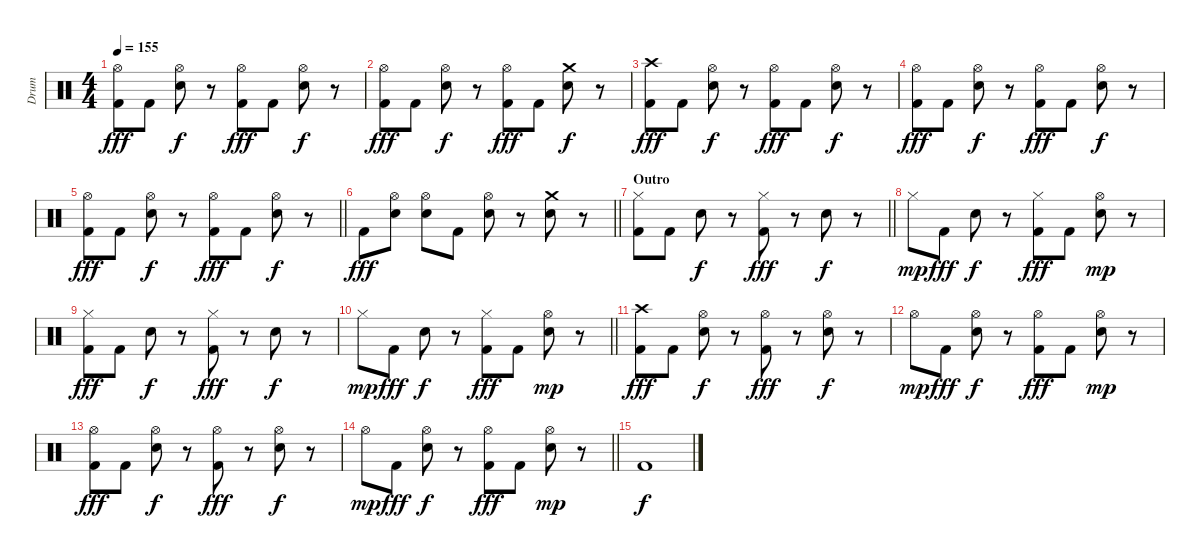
\track ("Drum" "Drum") {instrument percussion}
\staff {score}
\articulation defaults
\ts (4 4)
\tempo 155
\clef neutral
\ks c
("Hi-Hat (open)" "Kick (hit) 2").8{dy fff} "Kick (hit) 2".8 ("Hi-Hat (open)" "Snare (hit) 2").8{dy f} r.8 ("Hi-Hat (open)" "Kick (hit) 2").8{dy fff} "Kick (hit) 2".8 ("Hi-Hat (open)" "Snare (hit) 2").8{dy f} r.8 |
("Hi-Hat (open)" "Kick (hit) 2").8{dy fff} "Kick (hit) 2".8 ("Hi-Hat (open)" "Snare (hit) 2").8{dy f} r.8 ("Hi-Hat (open)" "Kick (hit) 2").8{dy fff} "Kick (hit) 2".8 ("Crash medium (hit)" "Snare (hit) 2").8{dy f} r.8 |
("Crash high (hit)" "Kick (hit) 2").8{dy fff} "Kick (hit) 2".8 ("Hi-Hat (open)" "Snare (hit) 2").8{dy f} r.8 ("Hi-Hat (open)" "Kick (hit) 2").8{dy fff} "Kick (hit) 2".8 ("Hi-Hat (open)" "Snare (hit) 2").8{dy f} r.8 |
("Hi-Hat (open)" "Kick (hit) 2").8{dy fff} "Kick (hit) 2".8 ("Hi-Hat (open)" "Snare (hit) 2").8{dy f} r.8 ("Hi-Hat (open)" "Kick (hit) 2").8{dy fff} "Kick (hit) 2".8 ("Hi-Hat (open)" "Snare (hit) 2").8{dy f} r.8 |
\barLineRight lightlight
("Hi-Hat (open)" "Kick (hit) 2").8{dy fff} "Kick (hit) 2".8 ("Hi-Hat (open)" "Snare (hit) 2").8{dy f} r.8 ("Hi-Hat (open)" "Kick (hit) 2").8{dy fff} "Kick (hit) 2".8 ("Hi-Hat (open)" "Snare (hit) 2").8{dy f} r.8 |
\barLineRight lightlight "Kick (hit) 2".8{dy fff}
("Hi-Hat (open)" "Snare (hit) 2").8 ("Hi-Hat (open)" "Snare (hit) 2").8 "Kick (hit) 2".8 ("Hi-Hat (open)" "Snare (hit) 2").8 r.8 ("Crash medium (hit)" "Snare (hit) 2").8 r.8 |
\section ("" "Outro")
\barLineRight lightlight
("Hi-Hat (closed)" "Kick (hit) 2").8 "Kick (hit) 2".8 "Snare (hit) 2".8{dy f} r.8 ("Hi-Hat (closed)" "Kick (hit) 2").8{dy fff} r.8 "Snare (hit) 2".8{dy f} r.8 |
"Hi-Hat (closed)".8{dy mp} "Kick (hit) 2".8{dy fff} "Snare (hit) 2".8{dy f} r.8 ("Hi-Hat (closed)" "Kick (hit) 2").8{dy fff} "Kick (hit) 2".8 ("Hi-Hat (open)" "Snare (hit) 2").8{dy mp} r.8 |
("Hi-Hat (closed)" "Kick (hit) 2").8{dy fff} "Kick (hit) 2".8 "Snare (hit) 2".8{dy f} r.8 ("Hi-Hat (closed)" "Kick (hit) 2").8{dy fff} r.8 "Snare (hit) 2".8{dy f} r.8 |
\barLineRight lightlight "Hi-Hat (closed)".8{dy mp} "Kick (hit) 2".8{dy fff} "Snare (hit) 2".8{dy f}
r.8 ("Hi-Hat (closed)" "Kick (hit) 2").8{dy fff} "Kick (hit) 2".8 ("Hi-Hat (open)" "Snare (hit) 2").8{dy mp} r.8 |
("Crash high (hit)" "Kick (hit) 2").8{dy fff} "Kick (hit) 2".8 ("Hi-Hat (open)" "Snare (hit) 2").8{dy f} r.8 ("Hi-Hat (open)" "Kick (hit) 2").8{dy fff} r.8 ("Hi-Hat (open)" "Snare (hit) 2").8{dy f} r.8 |
"Hi-Hat (open)".8{dy mp} "Kick (hit) 2".8{dy fff} ("Hi-Hat (open)" "Snare (hit) 2").8{dy f} r.8 ("Hi-Hat (open)" "Kick (hit) 2").8{dy fff} "Kick (hit) 2".8 ("Hi-Hat (open)" "Snare (hit) 2").8{dy mp} r.8 |
("Hi-Hat (open)" "Kick (hit) 2").8{dy fff} "Kick (hit) 2".8 ("Hi-Hat (open)" "Snare (hit) 2").8{dy f} r.8 ("Hi-Hat (open)" "Kick (hit) 2").8{dy fff} r.8 ("Hi-Hat (open)" "Snare (hit) 2").8{dy f} r.8 |
\barLineRight lightlight "Hi-Hat (open)".8{dy mp} "Kick (hit) 2".8{dy fff}
("Hi-Hat (open)" "Snare (hit) 2").8{dy f} r.8 ("Hi-Hat (open)" "Kick (hit) 2").8{dy fff} "Kick (hit) 2".8 ("Hi-Hat (open)" "Snare (hit) 2").8{dy mp} r.8 |
"Kick (hit) 2".1{dy f}
